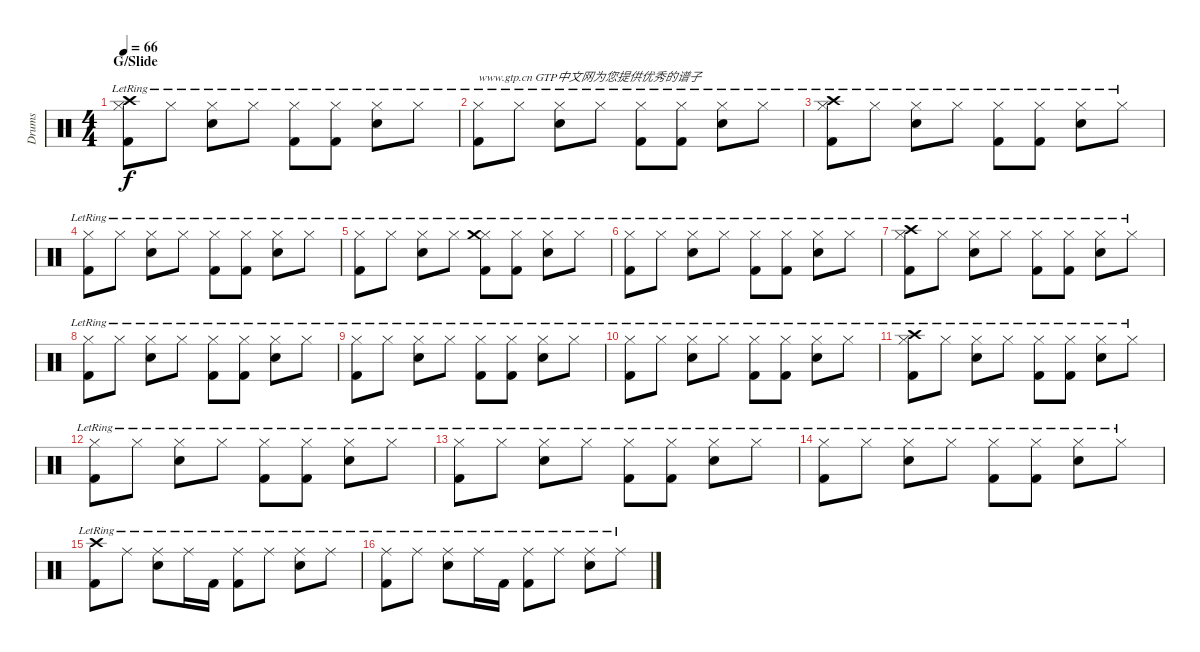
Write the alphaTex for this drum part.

\track ("Drums" "Drums") {instrument percussion}
\staff {score}
\articulation defaults
\ts (4 4)
\section ("" "G/Slide")
\tempo 66
\clef neutral
\ks c
("Kick (hit) 2"{lr} "Hi-Hat (closed)"{lr} "Crash high (hit)"{lr}).8{dy f} "Hi-Hat (closed)"{lr}.8 ("Hi-Hat (closed)"{lr} "Snare (hit) 2"{lr}).8 "Hi-Hat (closed)"{lr}.8 ("Hi-Hat (closed)"{lr} "Kick (hit) 2"{lr}).8 ("Hi-Hat (closed)"{lr} "Kick (hit) 2"{lr}).8 ("Hi-Hat (closed)"{lr} "Snare (hit) 2"{lr}).8 "Hi-Hat (closed)"{lr}.8 |
("Kick (hit) 2"{lr} "Hi-Hat (closed)"{lr}).8{txt "www.gtp.cn GTP中文网为您提供优秀的谱子"} "Hi-Hat (closed)"{lr}.8 ("Hi-Hat (closed)"{lr} "Snare (hit) 2"{lr}).8 "Hi-Hat (closed)"{lr}.8 ("Hi-Hat (closed)"{lr} "Kick (hit) 2"{lr}).8 ("Hi-Hat (closed)"{lr} "Kick (hit) 2"{lr}).8 ("Hi-Hat (closed)"{lr} "Snare (hit) 2"{lr}).8 "Hi-Hat (closed)"{lr}.8 |
("Kick (hit) 2"{lr} "Hi-Hat (closed)"{lr} "Crash high (hit)"{lr}).8 "Hi-Hat (closed)"{lr}.8 ("Hi-Hat (closed)"{lr} "Snare (hit) 2"{lr}).8 "Hi-Hat (closed)"{lr}.8 ("Hi-Hat (closed)"{lr} "Kick (hit) 2"{lr}).8 ("Hi-Hat (closed)"{lr} "Kick (hit) 2"{lr}).8 ("Hi-Hat (closed)"{lr} "Snare (hit) 2"{lr}).8 "Hi-Hat (closed)"{lr}.8 |
("Kick (hit) 2"{lr} "Hi-Hat (closed)"{lr}).8 "Hi-Hat (closed)"{lr}.8 ("Hi-Hat (closed)"{lr} "Snare (hit) 2"{lr}).8 "Hi-Hat (closed)"{lr}.8 ("Hi-Hat (closed)"{lr} "Kick (hit) 2"{lr}).8 ("Hi-Hat (closed)"{lr} "Kick (hit) 2"{lr}).8 ("Hi-Hat (closed)"{lr} "Snare (hit) 2"{lr}).8 "Hi-Hat (closed)"{lr}.8 |
("Hi-Hat (closed)"{lr} "Kick (hit) 2"{lr}).8 "Hi-Hat (closed)"{lr}.8 ("Hi-Hat (closed)"{lr} "Snare (hit) 2"{lr}).8 "Hi-Hat (closed)"{lr}.8 ("Hi-Hat (closed)"{lr} "Kick (hit) 2"{lr} "Crash medium (hit)"{lr}).8 ("Hi-Hat (closed)"{lr} "Kick (hit) 2"{lr}).8 ("Hi-Hat (closed)"{lr} "Snare (hit) 2"{lr}).8 "Hi-Hat (closed)"{lr}.8 |
("Kick (hit) 2"{lr} "Hi-Hat (closed)"{lr}).8 "Hi-Hat (closed)"{lr}.8 ("Hi-Hat (closed)"{lr} "Snare (hit) 2"{lr}).8 "Hi-Hat (closed)"{lr}.8 ("Hi-Hat (closed)"{lr} "Kick (hit) 2"{lr}).8 ("Hi-Hat (closed)"{lr} "Kick (hit) 2"{lr}).8 ("Hi-Hat (closed)"{lr} "Snare (hit) 2"{lr}).8 "Hi-Hat (closed)"{lr}.8 |
("Kick (hit) 2"{lr} "Hi-Hat (closed)"{lr} "Crash high (hit)"{lr}).8 "Hi-Hat (closed)"{lr}.8 ("Hi-Hat (closed)"{lr} "Snare (hit) 2"{lr}).8 "Hi-Hat (closed)"{lr}.8 ("Hi-Hat (closed)"{lr} "Kick (hit) 2"{lr}).8 ("Hi-Hat (closed)"{lr} "Kick (hit) 2"{lr}).8 ("Hi-Hat (closed)"{lr} "Snare (hit) 2"{lr}).8 "Hi-Hat (closed)"{lr}.8 |
("Kick (hit) 2"{lr} "Hi-Hat (closed)"{lr}).8 "Hi-Hat (closed)"{lr}.8 ("Hi-Hat (closed)"{lr} "Snare (hit) 2"{lr}).8 "Hi-Hat (closed)"{lr}.8 ("Hi-Hat (closed)"{lr} "Kick (hit) 2"{lr}).8 ("Hi-Hat (closed)"{lr} "Kick (hit) 2"{lr}).8 ("Hi-Hat (closed)"{lr} "Snare (hit) 2"{lr}).8 "Hi-Hat (closed)"{lr}.8 |
("Kick (hit) 2"{lr} "Hi-Hat (closed)"{lr}).8 "Hi-Hat (closed)"{lr}.8 ("Hi-Hat (closed)"{lr} "Snare (hit) 2"{lr}).8 "Hi-Hat (closed)"{lr}.8 ("Hi-Hat (closed)"{lr} "Kick (hit) 2"{lr}).8 ("Hi-Hat (closed)"{lr} "Kick (hit) 2"{lr}).8 ("Hi-Hat (closed)"{lr} "Snare (hit) 2"{lr}).8 "Hi-Hat (closed)"{lr}.8 |
("Kick (hit) 2"{lr} "Hi-Hat (closed)"{lr}).8 "Hi-Hat (closed)"{lr}.8 ("Hi-Hat (closed)"{lr} "Snare (hit) 2"{lr}).8 "Hi-Hat (closed)"{lr}.8 ("Hi-Hat (closed)"{lr} "Kick (hit) 2"{lr}).8 ("Hi-Hat (closed)"{lr} "Kick (hit) 2"{lr}).8 ("Hi-Hat (closed)"{lr} "Snare (hit) 2"{lr}).8 "Hi-Hat (closed)"{lr}.8 |
("Kick (hit) 2"{lr} "Hi-Hat (closed)"{lr} "Crash high (hit)"{lr}).8 "Hi-Hat (closed)"{lr}.8 ("Hi-Hat (closed)"{lr} "Snare (hit) 2"{lr}).8 "Hi-Hat (closed)"{lr}.8 ("Hi-Hat (closed)"{lr} "Kick (hit) 2"{lr}).8 ("Hi-Hat (closed)"{lr} "Kick (hit) 2"{lr}).8 ("Hi-Hat (closed)"{lr} "Snare (hit) 2"{lr}).8 "Hi-Hat (closed)"{lr}.8 |
("Kick (hit) 2"{lr} "Hi-Hat (closed)"{lr}).8 "Hi-Hat (closed)"{lr}.8 ("Hi-Hat (closed)"{lr} "Snare (hit) 2"{lr}).8 "Hi-Hat (closed)"{lr}.8 ("Hi-Hat (closed)"{lr} "Kick (hit) 2"{lr}).8 ("Hi-Hat (closed)"{lr} "Kick (hit) 2"{lr}).8 ("Hi-Hat (closed)"{lr} "Snare (hit) 2"{lr}).8 "Hi-Hat (closed)"{lr}.8 |
("Kick (hit) 2"{lr} "Hi-Hat (closed)"{lr}).8 "Hi-Hat (closed)"{lr}.8 ("Hi-Hat (closed)"{lr} "Snare (hit) 2"{lr}).8 "Hi-Hat (closed)"{lr}.8 ("Hi-Hat (closed)"{lr} "Kick (hit) 2"{lr}).8 ("Hi-Hat (closed)"{lr} "Kick (hit) 2"{lr}).8 ("Hi-Hat (closed)"{lr} "Snare (hit) 2"{lr}).8 "Hi-Hat (closed)"{lr}.8 |
("Kick (hit) 2"{lr} "Hi-Hat (closed)"{lr}).8 "Hi-Hat (closed)"{lr}.8 ("Hi-Hat (closed)"{lr} "Snare (hit) 2"{lr}).8 "Hi-Hat (closed)"{lr}.8 ("Hi-Hat (closed)"{lr} "Kick (hit) 2"{lr}).8 ("Hi-Hat (closed)"{lr} "Kick (hit) 2"{lr}).8 ("Hi-Hat (closed)"{lr} "Snare (hit) 2"{lr}).8 "Hi-Hat (closed)"{lr}.8 |
("Crash high (hit)"{lr} "Kick (hit) 2"{lr}).8 "Ride (middle)"{lr}.8 ("Snare (hit) 2"{lr} "Ride (middle)"{lr}).8 "Ride (middle)"{lr}.16 "Kick (hit) 2"{lr}.16 ("Kick (hit) 2"{lr} "Ride (middle)"{lr}).8 "Ride (middle)"{lr}.8 ("Snare (hit) 2"{lr} "Ride (middle)"{lr}).8 "Ride (middle)"{lr}.8 |
("Ride (middle)"{lr} "Kick (hit) 2"{lr}).8 "Ride (middle)"{lr}.8 ("Snare (hit) 2"{lr} "Ride (middle)"{lr}).8 "Ride (middle)"{lr}.16 "Kick (hit) 2"{lr}.16 ("Kick (hit) 2"{lr} "Ride (middle)"{lr}).8 "Ride (middle)"{lr}.8 ("Snare (hit) 2"{lr} "Ride (middle)"{lr}).8 "Ride (middle)"{lr}.8
